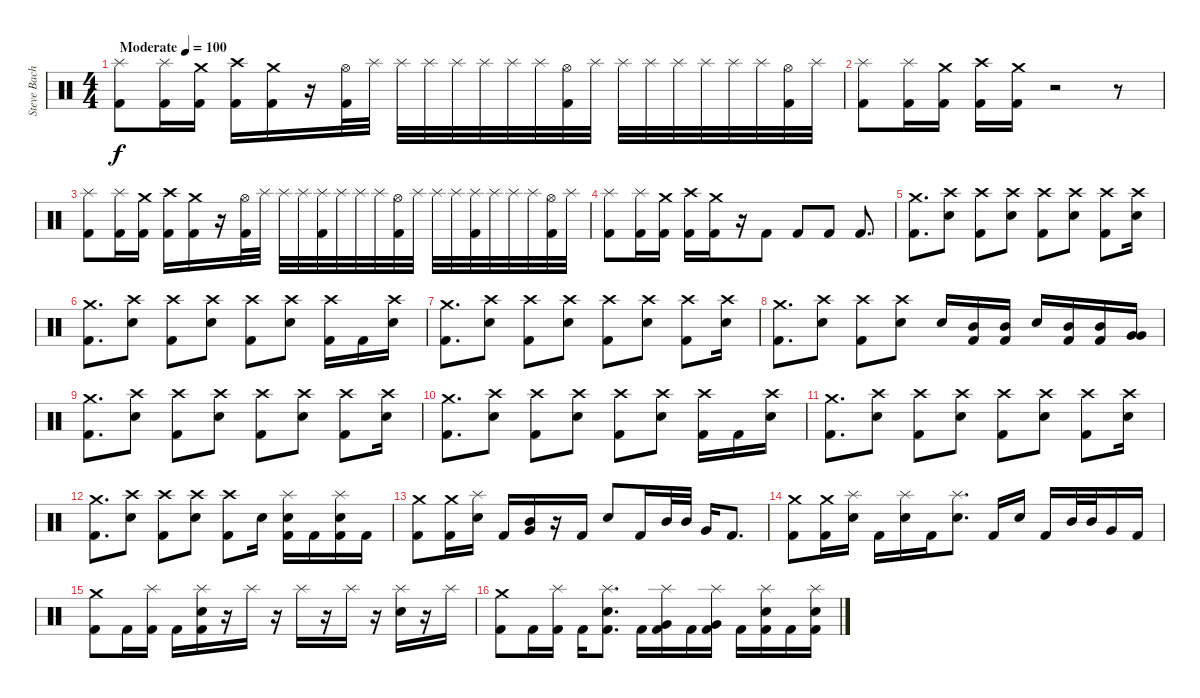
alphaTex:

\track ("Steve Bache" "Steve Bach") {instrument percussion}
\staff {score}
\articulation defaults
\ts (4 4)
\tempo (100 "Moderate")
\clef neutral
\ks c
("Splash (hit)" "Kick (hit) 2").8{dy f} ("Splash (hit)" "Kick (hit) 2").16 ("Crash medium (hit)" "Kick (hit) 2").16 ("Crash high (hit)" "Kick (hit) 2").16 ("Crash medium (hit)" "Kick (hit) 2").16 r.16 ("Hi-Hat (open)" "Kick (hit) 2").32 "Splash (hit)".32 "Splash (hit)".32 "Splash (hit)".32 "Splash (hit)".32 "Splash (hit)".32 "Splash (hit)".32 "Splash (hit)".32 ("Hi-Hat (open)" "Kick (hit) 2").32 "Splash (hit)".32 "Splash (hit)".32 "Splash (hit)".32 "Splash (hit)".32 "Splash (hit)".32 "Splash (hit)".32 "Splash (hit)".32 ("Hi-Hat (open)" "Kick (hit) 2").32 "Splash (hit)".32 |
("Splash (hit)" "Kick (hit) 2").8 ("Splash (hit)" "Kick (hit) 2").16 ("Crash medium (hit)" "Kick (hit) 2").16 ("Crash high (hit)" "Kick (hit) 2").16 ("Crash medium (hit)" "Kick (hit) 2").16 r.2 r.8 |
("Splash (hit)" "Kick (hit) 2").8 ("Splash (hit)" "Kick (hit) 2").16 ("Crash medium (hit)" "Kick (hit) 2").16 ("Crash high (hit)" "Kick (hit) 2").16 ("Crash medium (hit)" "Kick (hit) 2").16 r.16 ("Hi-Hat (open)" "Kick (hit) 2").32 "Splash (hit)".32 "Splash (hit)".32 "Splash (hit)".32 ("Splash (hit)" "Kick (hit) 2").32 "Splash (hit)".32 "Splash (hit)".32 "Splash (hit)".32 ("Hi-Hat (open)" "Kick (hit) 2").32 "Splash (hit)".32 "Splash (hit)".32 "Splash (hit)".32 ("Splash (hit)" "Kick (hit) 2").32 "Splash (hit)".32 "Splash (hit)".32 "Splash (hit)".32 ("Hi-Hat (open)" "Kick (hit) 2").32 "Splash (hit)".32 |
("Splash (hit)" "Kick (hit) 2").8 ("Splash (hit)" "Kick (hit) 2").16 ("Crash medium (hit)" "Kick (hit) 2").16 ("Crash high (hit)" "Kick (hit) 2").16 ("Crash medium (hit)" "Kick (hit) 2").16 r.16 "Kick (hit) 2".8 "Kick (hit) 2".8 "Kick (hit) 2".8 "Kick (hit) 2".8{d} |
("Crash medium (hit)" "Kick (hit) 2").8{d} ("Crash high (hit)" "Electric Snare (hit)").8 ("Crash high (hit)" "Kick (hit) 2").8 ("Crash high (hit)" "Electric Snare (hit)").8 ("Crash high (hit)" "Kick (hit) 2").8 ("Crash high (hit)" "Electric Snare (hit)").8 ("Crash high (hit)" "Kick (hit) 2").8 ("Crash high (hit)" "Electric Snare (hit)").16 |
("Crash medium (hit)" "Kick (hit) 2").8{d} ("Crash high (hit)" "Electric Snare (hit)").8 ("Crash high (hit)" "Kick (hit) 2").8 ("Crash high (hit)" "Electric Snare (hit)").8 ("Crash high (hit)" "Kick (hit) 2").8 ("Crash high (hit)" "Electric Snare (hit)").8 ("Crash high (hit)" "Kick (hit) 2").16 "Kick (hit) 2".16 ("Crash high (hit)" "Electric Snare (hit)").16 |
("Crash medium (hit)" "Kick (hit) 2").8{d} ("Crash high (hit)" "Electric Snare (hit)").8 ("Crash high (hit)" "Kick (hit) 2").8 ("Crash high (hit)" "Electric Snare (hit)").8 ("Crash high (hit)" "Kick (hit) 2").8 ("Crash high (hit)" "Electric Snare (hit)").8 ("Crash high (hit)" "Kick (hit) 2").8 ("Crash high (hit)" "Electric Snare (hit)").16 |
("Crash medium (hit)" "Kick (hit) 2").8{d} ("Crash high (hit)" "Electric Snare (hit)").8 ("Crash high (hit)" "Kick (hit) 2").8 ("Crash high (hit)" "Electric Snare (hit)").8 "Electric Snare (hit)".16 ("Mid Tom (hit)" "Kick (hit) 2").16 ("Mid Tom (hit)" "Kick (hit) 2").16 "Electric Snare (hit)".16 ("Mid Tom (hit)" "Kick (hit) 2").16 ("Mid Tom (hit)" "Kick (hit) 2").16 ("Very Low Tom (hit)" "Very Low Tom (hit)").16 |
("Crash medium (hit)" "Kick (hit) 2").8{d} ("Crash high (hit)" "Electric Snare (hit)").8 ("Crash high (hit)" "Kick (hit) 2").8 ("Crash high (hit)" "Electric Snare (hit)").8 ("Crash high (hit)" "Kick (hit) 2").8 ("Crash high (hit)" "Electric Snare (hit)").8 ("Crash high (hit)" "Kick (hit) 2").8 ("Crash high (hit)" "Electric Snare (hit)").16 |
("Crash medium (hit)" "Kick (hit) 2").8{d} ("Crash high (hit)" "Electric Snare (hit)").8 ("Crash high (hit)" "Kick (hit) 2").8 ("Crash high (hit)" "Electric Snare (hit)").8 ("Crash high (hit)" "Kick (hit) 2").8 ("Crash high (hit)" "Electric Snare (hit)").8 ("Crash high (hit)" "Kick (hit) 2").16 "Kick (hit) 2".16 ("Crash high (hit)" "Electric Snare (hit)").16 |
("Crash medium (hit)" "Kick (hit) 2").8{d} ("Crash high (hit)" "Electric Snare (hit)").8 ("Crash high (hit)" "Kick (hit) 2").8 ("Crash high (hit)" "Electric Snare (hit)").8 ("Crash high (hit)" "Kick (hit) 2").8 ("Crash high (hit)" "Electric Snare (hit)").8 ("Crash high (hit)" "Kick (hit) 2").8 ("Crash high (hit)" "Electric Snare (hit)").16 |
("Crash medium (hit)" "Kick (hit) 2").8{d} ("Crash high (hit)" "Electric Snare (hit)").8 ("Crash high (hit)" "Kick (hit) 2").8 ("Crash high (hit)" "Electric Snare (hit)").8 ("Crash high (hit)" "Kick (hit) 2").8 "Electric Snare (hit)".16 ("Splash (hit)" "Electric Snare (hit)" "Kick (hit) 2").16 "Kick (hit) 2".16 ("Splash (hit)" "Electric Snare (hit)" "Kick (hit) 2").16 "Kick (hit) 2".16 |
("Crash medium (hit)" "Kick (hit) 2").8 ("Crash medium (hit)" "Kick (hit) 2").16 ("Splash (hit)" "Electric Snare (hit)").16 "Kick (hit) 2".16 ("Mid Tom (hit)" "Very Low Tom (hit)").16 r.16 "Kick (hit) 2".16 "Electric Snare (hit)".8 "Kick (hit) 2".16 "Mid Tom (hit)".32 "Mid Tom (hit)".32 "Very Low Tom (hit)".16 "Kick (hit) 2".8{d} |
("Crash medium (hit)" "Kick (hit) 2").8 ("Crash medium (hit)" "Kick (hit) 2").16 ("Splash (hit)" "Electric Snare (hit)").16 "Kick (hit) 2".16 ("Splash (hit)" "Electric Snare (hit)").16 "Kick (hit) 2".16 ("Splash (hit)" "Electric Snare (hit)").8{d} "Kick (hit) 2".16 "Electric Snare (hit)".16 "Kick (hit) 2".16 "Mid Tom (hit)".32 "Mid Tom (hit)".32 "Very Low Tom (hit)".16 "Kick (hit) 2".16 |
("Crash medium (hit)" "Kick (hit) 2").8 "Kick (hit) 2".16 ("Splash (hit)" "Kick (hit) 2").16 "Kick (hit) 2".16 ("Splash (hit)" "Electric Snare (hit)" "Kick (hit) 2").16 r.16 "Splash (hit)".16 r.16 "Splash (hit)".16 r.16 "Splash (hit)".16 r.16 ("Splash (hit)" "Electric Snare (hit)").16 r.16 "Splash (hit)".16 |
("Crash medium (hit)" "Kick (hit) 2").8 "Kick (hit) 2".16 ("Splash (hit)" "Kick (hit) 2").16 "Kick (hit) 2".16 ("Splash (hit)" "Electric Snare (hit)" "Kick (hit) 2").8{d} "Kick (hit) 2".16 ("Splash (hit)" "Very Low Tom (hit)" "Kick (hit) 2").16 "Kick (hit) 2".16 ("Splash (hit)" "Very Low Tom (hit)" "Kick (hit) 2").16 "Kick (hit) 2".16 ("Splash (hit)" "Electric Snare (hit)" "Kick (hit) 2").16 "Kick (hit) 2".16 ("Splash (hit)" "Electric Snare (hit)" "Kick (hit) 2").16
